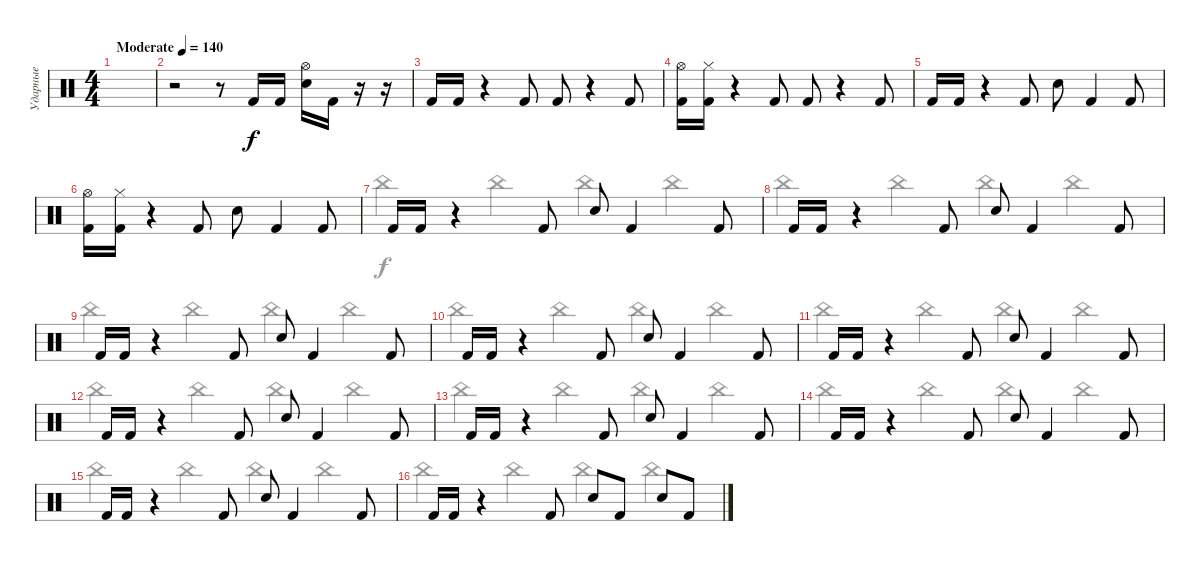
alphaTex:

\track ("Ударные" "Ударные") {instrument percussion}
\staff {score}
\articulation defaults
\voice
\ts (4 4)
\tempo (140 "Moderate")
\clef neutral
\ks c
|
r.2 r.8 "Kick (hit) 2".16 "Kick (hit) 2".16 ("Electric Snare (hit)" "Hi-Hat (open)").16 "Kick (hit) 2".16 r.16 r.16 |
"Kick (hit) 2".16 "Kick (hit) 2".16 r.4 "Kick (hit) 2".8 "Kick (hit) 2".8 r.4 "Kick (hit) 2".8 |
("Kick (hit) 2" "Hi-Hat (open)").16 ("Kick (hit) 2" "Hi-Hat (closed)").16 r.4 "Kick (hit) 2".8 "Kick (hit) 2".8 r.4 "Kick (hit) 2".8 |
"Kick (hit) 2".16 "Kick (hit) 2".16 r.4 "Kick (hit) 2".8 "Electric Snare (hit)".8 "Kick (hit) 2".4 "Kick (hit) 2".8 |
("Kick (hit) 2" "Hi-Hat (open)").16 ("Kick (hit) 2" "Hi-Hat (closed)").16 r.4 "Kick (hit) 2".8 "Electric Snare (hit)".8 "Kick (hit) 2".4 "Kick (hit) 2".8 |
"Kick (hit) 2".16 "Kick (hit) 2".16 r.4 "Kick (hit) 2".8 "Electric Snare (hit)".8 "Kick (hit) 2".4 "Kick (hit) 2".8 |
"Kick (hit) 2".16 "Kick (hit) 2".16 r.4 "Kick (hit) 2".8 "Electric Snare (hit)".8 "Kick (hit) 2".4 "Kick (hit) 2".8 |
"Kick (hit) 2".16 "Kick (hit) 2".16 r.4 "Kick (hit) 2".8 "Electric Snare (hit)".8 "Kick (hit) 2".4 "Kick (hit) 2".8 |
"Kick (hit) 2".16 "Kick (hit) 2".16 r.4 "Kick (hit) 2".8 "Electric Snare (hit)".8 "Kick (hit) 2".4 "Kick (hit) 2".8 |
"Kick (hit) 2".16 "Kick (hit) 2".16 r.4 "Kick (hit) 2".8 "Electric Snare (hit)".8 "Kick (hit) 2".4 "Kick (hit) 2".8 |
"Kick (hit) 2".16 "Kick (hit) 2".16 r.4 "Kick (hit) 2".8 "Electric Snare (hit)".8 "Kick (hit) 2".4 "Kick (hit) 2".8 |
"Kick (hit) 2".16 "Kick (hit) 2".16 r.4 "Kick (hit) 2".8 "Electric Snare (hit)".8 "Kick (hit) 2".4 "Kick (hit) 2".8 |
"Kick (hit) 2".16 "Kick (hit) 2".16 r.4 "Kick (hit) 2".8 "Electric Snare (hit)".8 "Kick (hit) 2".4 "Kick (hit) 2".8 |
"Kick (hit) 2".16 "Kick (hit) 2".16 r.4 "Kick (hit) 2".8 "Electric Snare (hit)".8 "Kick (hit) 2".4 "Kick (hit) 2".8 |
"Kick (hit) 2".16 "Kick (hit) 2".16 r.4 "Kick (hit) 2".8 "Electric Snare (hit)".8 "Kick (hit) 2".8 "Electric Snare (hit)".8 "Kick (hit) 2".8
\voice
\clef neutral
\ottava regular
\simile none
\ks c
|
|
|
|
|
|
"China (hit)".4 "China (hit)".4 "China (hit)".4 "China (hit)".4 |
"China (hit)".4 "China (hit)".4 "China (hit)".4 "China (hit)".4 |
"China (hit)".4 "China (hit)".4 "China (hit)".4 "China (hit)".4 |
"China (hit)".4 "China (hit)".4 "China (hit)".4 "China (hit)".4 |
"China (hit)".4 "China (hit)".4 "China (hit)".4 "China (hit)".4 |
"China (hit)".4 "China (hit)".4 "China (hit)".4 "China (hit)".4 |
"China (hit)".4 "China (hit)".4 "China (hit)".4 "China (hit)".4 |
"China (hit)".4 "China (hit)".4 "China (hit)".4 "China (hit)".4 |
"China (hit)".4 "China (hit)".4 "China (hit)".4 "China (hit)".4 |
"China (hit)".4 "China (hit)".4 "China (hit)".4 "China (hit)".4
